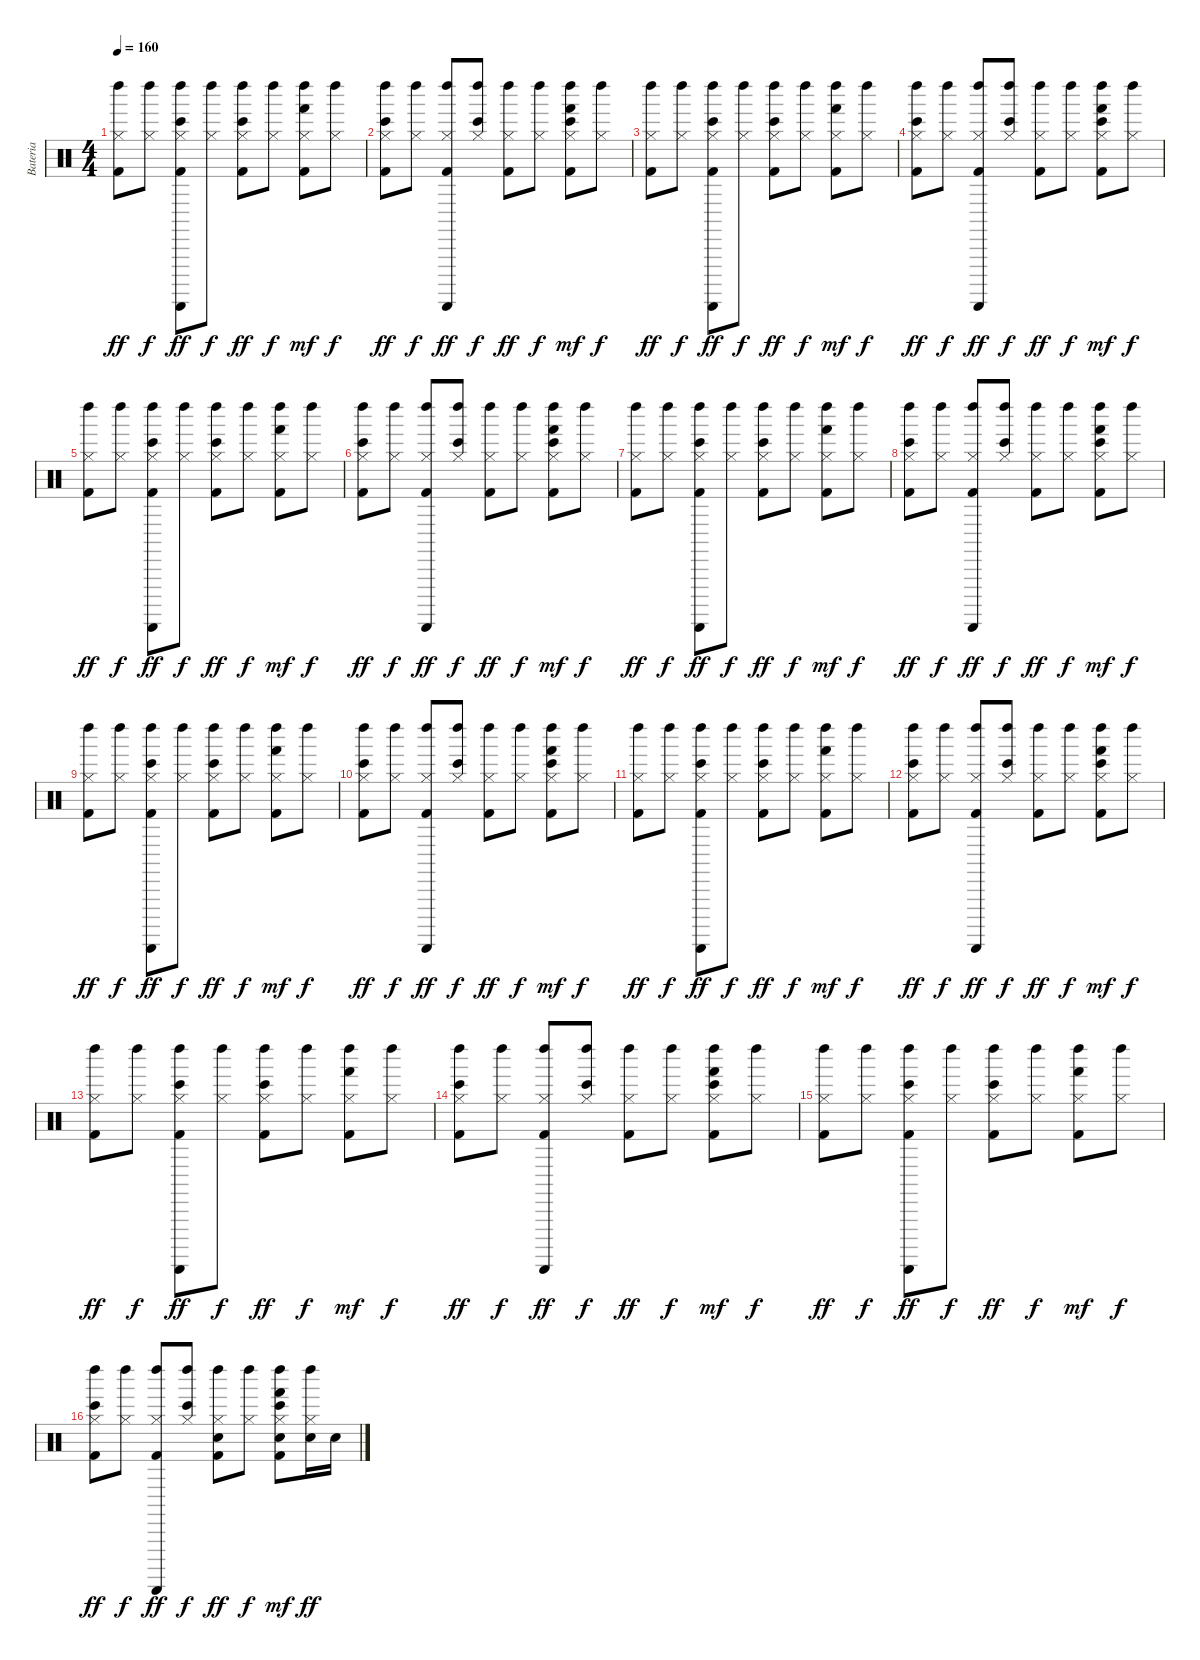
\track ("Bateria" "Bateria") {instrument percussion}
\staff {score}
\articulation defaults
\ts (4 4)
\tempo 160
\clef neutral
\ks c
("Left Maraca (hit)" "Kick (hit) 2" "Hi-Hat (closed)").8{dy ff} ("Left Maraca (hit)" "Hi-Hat (closed)").8{dy f} ("Left Maraca (hit)" "Guiro (scrap-return)" "Hi-Hat (closed)" "Kick (hit) 2" "Bongo High (hit)").8{dy ff} ("Left Maraca (hit)" "Hi-Hat (closed)").8{dy f} ("Left Maraca (hit)" "Hi-Hat (closed)" "Kick (hit) 2" "Bongo High (hit)").8{dy ff} ("Left Maraca (hit)" "Hi-Hat (closed)").8{dy f} ("Left Maraca (hit)" "Hi-Hat (closed)" "Kick (hit) 2" "Hand (hit)").8{dy mf} ("Left Maraca (hit)" "Hi-Hat (closed)").8{dy f} |
("Left Maraca (hit)" "Hi-Hat (closed)" "Kick (hit) 2" "Bongo High (hit)").8{dy ff} ("Left Maraca (hit)" "Hi-Hat (closed)").8{dy f} ("Left Maraca (hit)" "Guiro (scrap-return)" "Kick (hit) 2" "Hi-Hat (closed)").8{dy ff} ("Left Maraca (hit)" "Hi-Hat (closed)" "Bongo High (hit)").8{dy f} ("Left Maraca (hit)" "Kick (hit) 2" "Hi-Hat (closed)").8{dy ff} ("Left Maraca (hit)" "Hi-Hat (closed)").8{dy f} ("Left Maraca (hit)" "Bongo High (hit)" "Hi-Hat (closed)" "Kick (hit) 2" "Hand (hit)").8{dy mf} ("Left Maraca (hit)" "Hi-Hat (closed)").8{dy f} |
("Left Maraca (hit)" "Kick (hit) 2" "Hi-Hat (closed)").8{dy ff} ("Left Maraca (hit)" "Hi-Hat (closed)").8{dy f} ("Left Maraca (hit)" "Guiro (scrap-return)" "Hi-Hat (closed)" "Kick (hit) 2" "Bongo High (hit)").8{dy ff} ("Left Maraca (hit)" "Hi-Hat (closed)").8{dy f} ("Left Maraca (hit)" "Hi-Hat (closed)" "Kick (hit) 2" "Bongo High (hit)").8{dy ff} ("Left Maraca (hit)" "Hi-Hat (closed)").8{dy f} ("Left Maraca (hit)" "Hi-Hat (closed)" "Kick (hit) 2" "Hand (hit)").8{dy mf} ("Left Maraca (hit)" "Hi-Hat (closed)").8{dy f} |
("Left Maraca (hit)" "Hi-Hat (closed)" "Kick (hit) 2" "Bongo High (hit)").8{dy ff} ("Left Maraca (hit)" "Hi-Hat (closed)").8{dy f} ("Left Maraca (hit)" "Guiro (scrap-return)" "Kick (hit) 2" "Hi-Hat (closed)").8{dy ff} ("Left Maraca (hit)" "Hi-Hat (closed)" "Bongo High (hit)").8{dy f} ("Left Maraca (hit)" "Kick (hit) 2" "Hi-Hat (closed)").8{dy ff} ("Left Maraca (hit)" "Hi-Hat (closed)").8{dy f} ("Left Maraca (hit)" "Bongo High (hit)" "Hi-Hat (closed)" "Kick (hit) 2" "Hand (hit)").8{dy mf} ("Left Maraca (hit)" "Hi-Hat (closed)").8{dy f} |
("Left Maraca (hit)" "Kick (hit) 2" "Hi-Hat (closed)").8{dy ff} ("Left Maraca (hit)" "Hi-Hat (closed)").8{dy f} ("Left Maraca (hit)" "Guiro (scrap-return)" "Hi-Hat (closed)" "Kick (hit) 2" "Bongo High (hit)").8{dy ff} ("Left Maraca (hit)" "Hi-Hat (closed)").8{dy f} ("Left Maraca (hit)" "Hi-Hat (closed)" "Kick (hit) 2" "Bongo High (hit)").8{dy ff} ("Left Maraca (hit)" "Hi-Hat (closed)").8{dy f} ("Left Maraca (hit)" "Hi-Hat (closed)" "Kick (hit) 2" "Hand (hit)").8{dy mf} ("Left Maraca (hit)" "Hi-Hat (closed)").8{dy f} |
("Left Maraca (hit)" "Hi-Hat (closed)" "Kick (hit) 2" "Bongo High (hit)").8{dy ff} ("Left Maraca (hit)" "Hi-Hat (closed)").8{dy f} ("Left Maraca (hit)" "Guiro (scrap-return)" "Kick (hit) 2" "Hi-Hat (closed)").8{dy ff} ("Left Maraca (hit)" "Hi-Hat (closed)" "Bongo High (hit)").8{dy f} ("Left Maraca (hit)" "Kick (hit) 2" "Hi-Hat (closed)").8{dy ff} ("Left Maraca (hit)" "Hi-Hat (closed)").8{dy f} ("Left Maraca (hit)" "Bongo High (hit)" "Hi-Hat (closed)" "Kick (hit) 2" "Hand (hit)").8{dy mf} ("Left Maraca (hit)" "Hi-Hat (closed)").8{dy f} |
("Left Maraca (hit)" "Kick (hit) 2" "Hi-Hat (closed)").8{dy ff} ("Left Maraca (hit)" "Hi-Hat (closed)").8{dy f} ("Left Maraca (hit)" "Guiro (scrap-return)" "Hi-Hat (closed)" "Kick (hit) 2" "Bongo High (hit)").8{dy ff} ("Left Maraca (hit)" "Hi-Hat (closed)").8{dy f} ("Left Maraca (hit)" "Hi-Hat (closed)" "Kick (hit) 2" "Bongo High (hit)").8{dy ff} ("Left Maraca (hit)" "Hi-Hat (closed)").8{dy f} ("Left Maraca (hit)" "Hi-Hat (closed)" "Kick (hit) 2" "Hand (hit)").8{dy mf} ("Left Maraca (hit)" "Hi-Hat (closed)").8{dy f} |
("Left Maraca (hit)" "Hi-Hat (closed)" "Kick (hit) 2" "Bongo High (hit)").8{dy ff} ("Left Maraca (hit)" "Hi-Hat (closed)").8{dy f} ("Left Maraca (hit)" "Guiro (scrap-return)" "Kick (hit) 2" "Hi-Hat (closed)").8{dy ff} ("Left Maraca (hit)" "Hi-Hat (closed)" "Bongo High (hit)").8{dy f} ("Left Maraca (hit)" "Kick (hit) 2" "Hi-Hat (closed)").8{dy ff} ("Left Maraca (hit)" "Hi-Hat (closed)").8{dy f} ("Left Maraca (hit)" "Bongo High (hit)" "Hi-Hat (closed)" "Kick (hit) 2" "Hand (hit)").8{dy mf} ("Left Maraca (hit)" "Hi-Hat (closed)").8{dy f} |
("Left Maraca (hit)" "Kick (hit) 2" "Hi-Hat (closed)").8{dy ff} ("Left Maraca (hit)" "Hi-Hat (closed)").8{dy f} ("Left Maraca (hit)" "Guiro (scrap-return)" "Hi-Hat (closed)" "Kick (hit) 2" "Bongo High (hit)").8{dy ff} ("Left Maraca (hit)" "Hi-Hat (closed)").8{dy f} ("Left Maraca (hit)" "Hi-Hat (closed)" "Kick (hit) 2" "Bongo High (hit)").8{dy ff} ("Left Maraca (hit)" "Hi-Hat (closed)").8{dy f} ("Left Maraca (hit)" "Hi-Hat (closed)" "Kick (hit) 2" "Hand (hit)").8{dy mf} ("Left Maraca (hit)" "Hi-Hat (closed)").8{dy f} |
("Left Maraca (hit)" "Hi-Hat (closed)" "Kick (hit) 2" "Bongo High (hit)").8{dy ff} ("Left Maraca (hit)" "Hi-Hat (closed)").8{dy f} ("Left Maraca (hit)" "Guiro (scrap-return)" "Kick (hit) 2" "Hi-Hat (closed)").8{dy ff} ("Left Maraca (hit)" "Hi-Hat (closed)" "Bongo High (hit)").8{dy f} ("Left Maraca (hit)" "Kick (hit) 2" "Hi-Hat (closed)").8{dy ff} ("Left Maraca (hit)" "Hi-Hat (closed)").8{dy f} ("Left Maraca (hit)" "Bongo High (hit)" "Hi-Hat (closed)" "Kick (hit) 2" "Hand (hit)").8{dy mf} ("Left Maraca (hit)" "Hi-Hat (closed)").8{dy f} |
("Left Maraca (hit)" "Kick (hit) 2" "Hi-Hat (closed)").8{dy ff} ("Left Maraca (hit)" "Hi-Hat (closed)").8{dy f} ("Left Maraca (hit)" "Guiro (scrap-return)" "Hi-Hat (closed)" "Kick (hit) 2" "Bongo High (hit)").8{dy ff} ("Left Maraca (hit)" "Hi-Hat (closed)").8{dy f} ("Left Maraca (hit)" "Hi-Hat (closed)" "Kick (hit) 2" "Bongo High (hit)").8{dy ff} ("Left Maraca (hit)" "Hi-Hat (closed)").8{dy f} ("Left Maraca (hit)" "Hi-Hat (closed)" "Kick (hit) 2" "Hand (hit)").8{dy mf} ("Left Maraca (hit)" "Hi-Hat (closed)").8{dy f} |
("Left Maraca (hit)" "Hi-Hat (closed)" "Kick (hit) 2" "Bongo High (hit)").8{dy ff} ("Left Maraca (hit)" "Hi-Hat (closed)").8{dy f} ("Left Maraca (hit)" "Guiro (scrap-return)" "Kick (hit) 2" "Hi-Hat (closed)").8{dy ff} ("Left Maraca (hit)" "Hi-Hat (closed)" "Bongo High (hit)").8{dy f} ("Left Maraca (hit)" "Kick (hit) 2" "Hi-Hat (closed)").8{dy ff} ("Left Maraca (hit)" "Hi-Hat (closed)").8{dy f} ("Left Maraca (hit)" "Bongo High (hit)" "Hi-Hat (closed)" "Kick (hit) 2" "Hand (hit)").8{dy mf} ("Left Maraca (hit)" "Hi-Hat (closed)").8{dy f} |
("Left Maraca (hit)" "Kick (hit) 2" "Hi-Hat (closed)").8{dy ff} ("Left Maraca (hit)" "Hi-Hat (closed)").8{dy f} ("Left Maraca (hit)" "Guiro (scrap-return)" "Hi-Hat (closed)" "Kick (hit) 2" "Bongo High (hit)").8{dy ff} ("Left Maraca (hit)" "Hi-Hat (closed)").8{dy f} ("Left Maraca (hit)" "Hi-Hat (closed)" "Kick (hit) 2" "Bongo High (hit)").8{dy ff} ("Left Maraca (hit)" "Hi-Hat (closed)").8{dy f} ("Left Maraca (hit)" "Hi-Hat (closed)" "Kick (hit) 2" "Hand (hit)").8{dy mf} ("Left Maraca (hit)" "Hi-Hat (closed)").8{dy f} |
("Left Maraca (hit)" "Hi-Hat (closed)" "Kick (hit) 2" "Bongo High (hit)").8{dy ff} ("Left Maraca (hit)" "Hi-Hat (closed)").8{dy f} ("Left Maraca (hit)" "Guiro (scrap-return)" "Kick (hit) 2" "Hi-Hat (closed)").8{dy ff} ("Left Maraca (hit)" "Hi-Hat (closed)" "Bongo High (hit)").8{dy f} ("Left Maraca (hit)" "Kick (hit) 2" "Hi-Hat (closed)").8{dy ff} ("Left Maraca (hit)" "Hi-Hat (closed)").8{dy f} ("Left Maraca (hit)" "Bongo High (hit)" "Hi-Hat (closed)" "Kick (hit) 2" "Hand (hit)").8{dy mf} ("Left Maraca (hit)" "Hi-Hat (closed)").8{dy f} |
("Left Maraca (hit)" "Kick (hit) 2" "Hi-Hat (closed)").8{dy ff} ("Left Maraca (hit)" "Hi-Hat (closed)").8{dy f} ("Left Maraca (hit)" "Guiro (scrap-return)" "Hi-Hat (closed)" "Kick (hit) 2" "Bongo High (hit)").8{dy ff} ("Left Maraca (hit)" "Hi-Hat (closed)").8{dy f} ("Left Maraca (hit)" "Hi-Hat (closed)" "Kick (hit) 2" "Bongo High (hit)").8{dy ff} ("Left Maraca (hit)" "Hi-Hat (closed)").8{dy f} ("Left Maraca (hit)" "Hi-Hat (closed)" "Kick (hit) 2" "Hand (hit)").8{dy mf} ("Left Maraca (hit)" "Hi-Hat (closed)").8{dy f} |
("Left Maraca (hit)" "Hi-Hat (closed)" "Kick (hit) 2" "Bongo High (hit)").8{dy ff} ("Left Maraca (hit)" "Hi-Hat (closed)").8{dy f} ("Left Maraca (hit)" "Guiro (scrap-return)" "Kick (hit) 2" "Hi-Hat (closed)").8{dy ff} ("Left Maraca (hit)" "Hi-Hat (closed)" "Bongo High (hit)").8{dy f} ("Left Maraca (hit)" "Kick (hit) 2" "Hi-Hat (closed)" "Snare (hit) 2").8{dy ff} ("Left Maraca (hit)" "Hi-Hat (closed)").8{dy f} ("Left Maraca (hit)" "Bongo High (hit)" "Snare (hit) 2" "Hi-Hat (closed)" "Kick (hit) 2" "Hand (hit)").8{dy mf} ("Left Maraca (hit)" "Hi-Hat (closed)" "Snare (hit) 2").16{dy ff} "Snare (hit) 2".16
